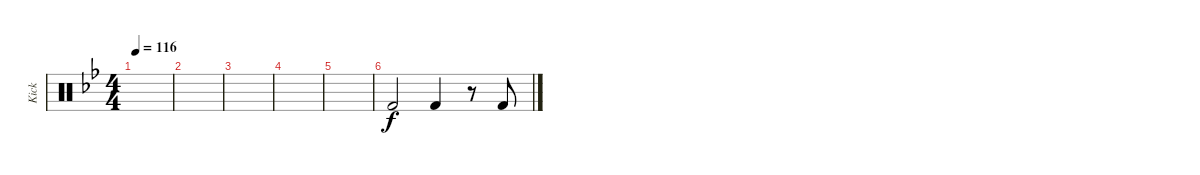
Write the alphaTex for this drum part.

\track ("Kick" "Kick") {instrument percussion}
\staff {score}
\articulation defaults
\ts (4 4)
\tempo 116
\clef neutral
\ks bb
|
|
|
|
|
"Kick (hit) 2".2 "Kick (hit) 2".4 r.8 "Kick (hit) 2".8
